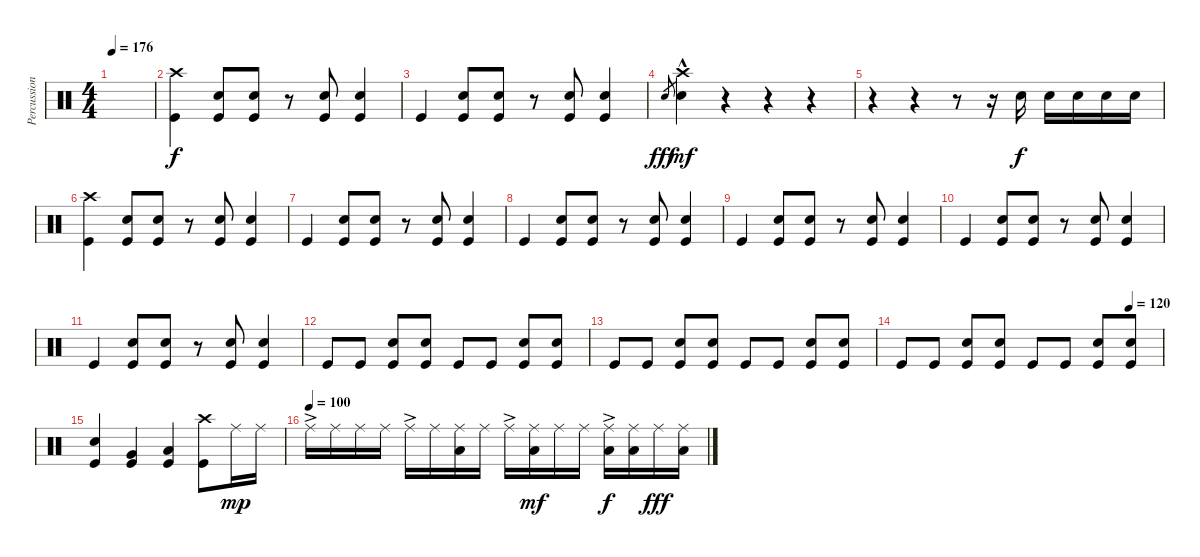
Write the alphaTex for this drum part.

\track ("Percussion" "Percussion") {instrument percussion}
\staff {score}
\articulation defaults
\ts (4 4)
\tempo 176
\clef neutral
\ks c
|
("Crash high (hit)" "Kick (hit)").4 ("Snare (hit) 2" "Kick (hit)").8 ("Snare (hit) 2" "Kick (hit)").8 r.8 ("Snare (hit) 2" "Kick (hit)").8 ("Snare (hit) 2" "Kick (hit)").4 |
"Kick (hit)".4 ("Snare (hit) 2" "Kick (hit)").8 ("Snare (hit) 2" "Kick (hit)").8 r.8 ("Snare (hit) 2" "Kick (hit)").8 ("Snare (hit) 2" "Kick (hit)").4 |
"Snare (hit) 2".8{gr dy fff} ("Snare (hit) 2"{hac} "Crash high (hit)").4{dy mf} r.4 r.4 r.4 |
r.4 r.4 r.8 r.16 "Snare (hit) 2".16{dy f} "Snare (hit) 2".16 "Snare (hit) 2".16 "Snare (hit) 2".16 "Snare (hit) 2".16 |
("Crash high (hit)" "Kick (hit)").4 ("Snare (hit) 2" "Kick (hit)").8 ("Snare (hit) 2" "Kick (hit)").8 r.8 ("Snare (hit) 2" "Kick (hit)").8 ("Snare (hit) 2" "Kick (hit)").4 |
"Kick (hit)".4 ("Snare (hit) 2" "Kick (hit)").8 ("Snare (hit) 2" "Kick (hit)").8 r.8 ("Snare (hit) 2" "Kick (hit)").8 ("Snare (hit) 2" "Kick (hit)").4 |
"Kick (hit)".4 ("Snare (hit) 2" "Kick (hit)").8 ("Snare (hit) 2" "Kick (hit)").8 r.8 ("Snare (hit) 2" "Kick (hit)").8 ("Snare (hit) 2" "Kick (hit)").4 |
"Kick (hit)".4 ("Snare (hit) 2" "Kick (hit)").8 ("Snare (hit) 2" "Kick (hit)").8 r.8 ("Snare (hit) 2" "Kick (hit)").8 ("Snare (hit) 2" "Kick (hit)").4 |
"Kick (hit)".4 ("Snare (hit) 2" "Kick (hit)").8 ("Snare (hit) 2" "Kick (hit)").8 r.8 ("Snare (hit) 2" "Kick (hit)").8 ("Snare (hit) 2" "Kick (hit)").4 |
"Kick (hit)".4 ("Snare (hit) 2" "Kick (hit)").8 ("Snare (hit) 2" "Kick (hit)").8 r.8 ("Snare (hit) 2" "Kick (hit)").8 ("Snare (hit) 2" "Kick (hit)").4 |
"Kick (hit)".8 "Kick (hit)".8 ("Kick (hit)" "Snare (hit) 2").8 ("Kick (hit)" "Snare (hit) 2").8 "Kick (hit)".8 "Kick (hit)".8 ("Kick (hit)" "Snare (hit) 2").8 ("Kick (hit)" "Snare (hit) 2").8 |
"Kick (hit)".8 "Kick (hit)".8 ("Kick (hit)" "Snare (hit) 2").8 ("Kick (hit)" "Snare (hit) 2").8 "Kick (hit)".8 "Kick (hit)".8 ("Kick (hit)" "Snare (hit) 2").8 ("Kick (hit)" "Snare (hit) 2").8 |
\tempo (120 0.875)
"Kick (hit)".8 "Kick (hit)".8 ("Kick (hit)" "Snare (hit) 2").8 ("Kick (hit)" "Snare (hit) 2").8 "Kick (hit)".8 "Kick (hit)".8 ("Kick (hit)" "Snare (hit) 2").8 ("Kick (hit)" "Snare (hit) 2").8 |
("Kick (hit)" "Snare (hit) 2").4 ("Kick (hit)" "Very Low Tom (hit)").4 ("Kick (hit)" "Low Floor Tom (hit)").4 ("Kick (hit)" "Crash high (hit)").8 "Ride (middle)".16{dy mp} "Ride (middle)".16 |
\tempo (100)
"Ride (middle)"{ac}.16 "Ride (middle)".16 "Ride (middle)".16 "Ride (middle)".16 "Ride (middle)"{ac}.16 "Ride (middle)".16 ("Ride (middle)" "Low Floor Tom (hit)").16 "Ride (middle)".16 "Ride (middle)"{ac}.16 ("Ride (middle)" "Low Floor Tom (hit)").16{dy mf} "Ride (middle)".16 "Ride (middle)".16 ("Ride (middle)"{ac} "Low Floor Tom (hit)").16{dy f} ("Ride (middle)" "Low Tom (hit)").16 "Ride (middle)".16{dy fff} ("Ride (middle)" "Low Tom (hit)").16
